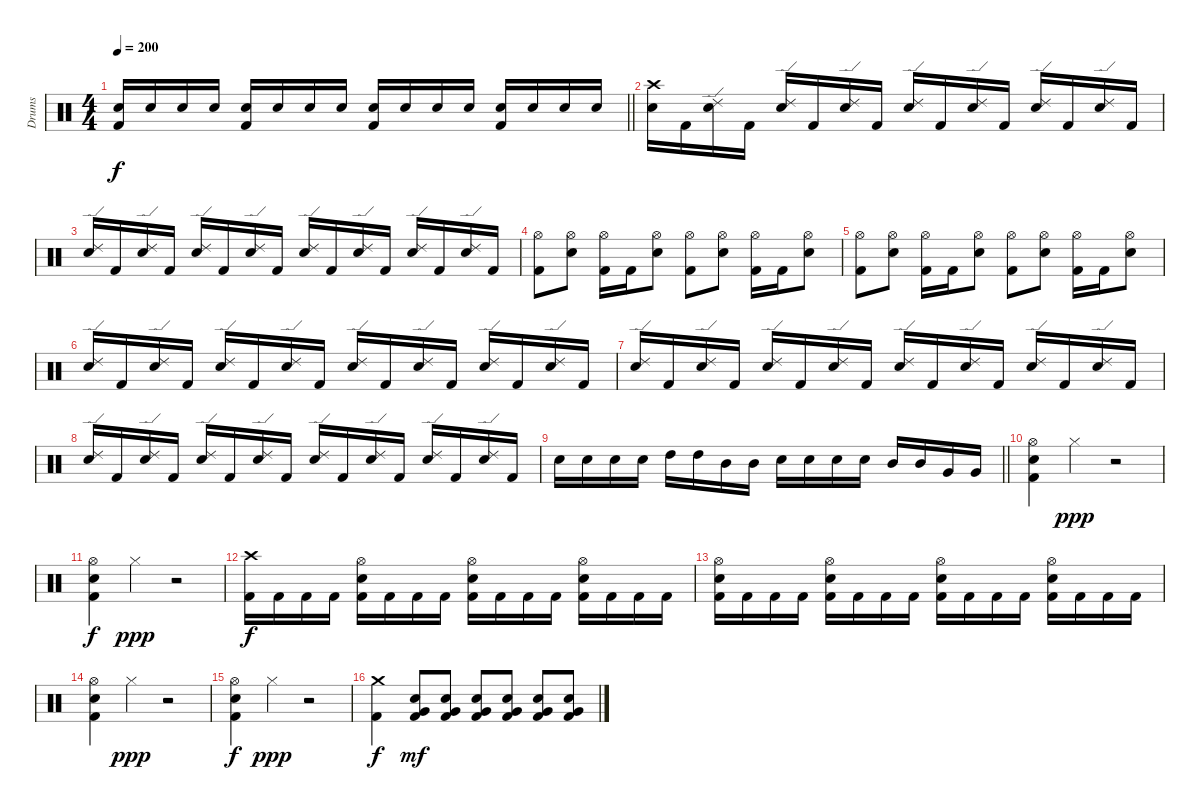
\track ("Drums" "Drums") {instrument percussion}
\staff {score}
\articulation defaults
\ts (4 4)
\tempo 200
\clef neutral
\barLineRight lightlight
\ks c
("Kick (hit) 2" "Snare (hit) 2").16{dy f} "Snare (hit) 2".16 "Snare (hit) 2".16 "Snare (hit) 2".16 ("Kick (hit) 2" "Snare (hit) 2").16 "Snare (hit) 2".16 "Snare (hit) 2".16 "Snare (hit) 2".16 ("Kick (hit) 2" "Snare (hit) 2").16 "Snare (hit) 2".16 "Snare (hit) 2".16 "Snare (hit) 2".16 ("Kick (hit) 2" "Snare (hit) 2").16 "Snare (hit) 2".16 "Snare (hit) 2".16 "Snare (hit) 2".16 |
\section ("" "")
("Snare (hit) 2" "Crash high (hit)").16 "Kick (hit) 2".16 ("Snare (hit) 2" "Ride (edge) 2").16 "Kick (hit) 2".16 ("Snare (hit) 2" "Ride (edge) 2").16 "Kick (hit) 2".16 ("Snare (hit) 2" "Ride (edge) 2").16 "Kick (hit) 2".16 ("Snare (hit) 2" "Ride (edge) 2").16 "Kick (hit) 2".16 ("Snare (hit) 2" "Ride (edge) 2").16 "Kick (hit) 2".16 ("Snare (hit) 2" "Ride (edge) 2").16 "Kick (hit) 2".16 ("Snare (hit) 2" "Ride (edge) 2").16 "Kick (hit) 2".16 |
("Snare (hit) 2" "Ride (edge) 2").16 "Kick (hit) 2".16 ("Snare (hit) 2" "Ride (edge) 2").16 "Kick (hit) 2".16 ("Snare (hit) 2" "Ride (edge) 2").16 "Kick (hit) 2".16 ("Snare (hit) 2" "Ride (edge) 2").16 "Kick (hit) 2".16 ("Snare (hit) 2" "Ride (edge) 2").16 "Kick (hit) 2".16 ("Snare (hit) 2" "Ride (edge) 2").16 "Kick (hit) 2".16 ("Snare (hit) 2" "Ride (edge) 2").16 "Kick (hit) 2".16 ("Snare (hit) 2" "Ride (edge) 2").16 "Kick (hit) 2".16 |
("Kick (hit) 2" "Hi-Hat (open)").8 ("Snare (hit) 2" "Hi-Hat (open)").8 ("Kick (hit) 2" "Hi-Hat (open)").16 "Kick (hit) 2".16 ("Snare (hit) 2" "Hi-Hat (open)").8 ("Kick (hit) 2" "Hi-Hat (open)").8 ("Snare (hit) 2" "Hi-Hat (open)").8 ("Kick (hit) 2" "Hi-Hat (open)").16 "Kick (hit) 2".16 ("Snare (hit) 2" "Hi-Hat (open)").8 |
("Kick (hit) 2" "Hi-Hat (open)").8 ("Snare (hit) 2" "Hi-Hat (open)").8 ("Kick (hit) 2" "Hi-Hat (open)").16 "Kick (hit) 2".16 ("Snare (hit) 2" "Hi-Hat (open)").8 ("Kick (hit) 2" "Hi-Hat (open)").8 ("Snare (hit) 2" "Hi-Hat (open)").8 ("Kick (hit) 2" "Hi-Hat (open)").16 "Kick (hit) 2".16 ("Snare (hit) 2" "Hi-Hat (open)").8 |
("Snare (hit) 2" "Ride (edge) 2").16 "Kick (hit) 2".16 ("Snare (hit) 2" "Ride (edge) 2").16 "Kick (hit) 2".16 ("Snare (hit) 2" "Ride (edge) 2").16 "Kick (hit) 2".16 ("Snare (hit) 2" "Ride (edge) 2").16 "Kick (hit) 2".16 ("Snare (hit) 2" "Ride (edge) 2").16 "Kick (hit) 2".16 ("Snare (hit) 2" "Ride (edge) 2").16 "Kick (hit) 2".16 ("Snare (hit) 2" "Ride (edge) 2").16 "Kick (hit) 2".16 ("Snare (hit) 2" "Ride (edge) 2").16 "Kick (hit) 2".16 |
("Snare (hit) 2" "Ride (edge) 2").16 "Kick (hit) 2".16 ("Snare (hit) 2" "Ride (edge) 2").16 "Kick (hit) 2".16 ("Snare (hit) 2" "Ride (edge) 2").16 "Kick (hit) 2".16 ("Snare (hit) 2" "Ride (edge) 2").16 "Kick (hit) 2".16 ("Snare (hit) 2" "Ride (edge) 2").16 "Kick (hit) 2".16 ("Snare (hit) 2" "Ride (edge) 2").16 "Kick (hit) 2".16 ("Snare (hit) 2" "Ride (edge) 2").16 "Kick (hit) 2".16 ("Snare (hit) 2" "Ride (edge) 2").16 "Kick (hit) 2".16 |
("Snare (hit) 2" "Ride (edge) 2").16 "Kick (hit) 2".16 ("Snare (hit) 2" "Ride (edge) 2").16 "Kick (hit) 2".16 ("Snare (hit) 2" "Ride (edge) 2").16 "Kick (hit) 2".16 ("Snare (hit) 2" "Ride (edge) 2").16 "Kick (hit) 2".16 ("Snare (hit) 2" "Ride (edge) 2").16 "Kick (hit) 2".16 ("Snare (hit) 2" "Ride (edge) 2").16 "Kick (hit) 2".16 ("Snare (hit) 2" "Ride (edge) 2").16 "Kick (hit) 2".16 ("Snare (hit) 2" "Ride (edge) 2").16 "Kick (hit) 2".16 |
\barLineRight lightlight "Snare (hit) 2".16 "Snare (hit) 2".16 "Snare (hit) 2".16 "Snare (hit) 2".16 "High Tom (hit)".16 "High Tom (hit)".16 "Mid Tom (hit)".16 "Mid Tom (hit)".16 "Snare (hit) 2".16 "Snare (hit) 2".16 "Snare (hit) 2".16 "Snare (hit) 2".16 "Mid Tom (hit)".16 "Mid Tom (hit)".16 "Very Low Tom (hit)".16 "Very Low Tom (hit)".16
|
\section ("" "")
("Kick (hit) 2" "Snare (hit) 2" "Hi-Hat (open)").4 "Hi-Hat (closed)".4{dy ppp} r.2 |
("Kick (hit) 2" "Snare (hit) 2" "Hi-Hat (open)").4{dy f} "Hi-Hat (closed)".4{dy ppp} r.2 |
("Kick (hit) 2" "Crash high (hit)").16{dy f} "Kick (hit) 2".16 "Kick (hit) 2".16 "Kick (hit) 2".16 ("Kick (hit) 2" "Snare (hit) 2" "Hi-Hat (open)").16 "Kick (hit) 2".16 "Kick (hit) 2".16 "Kick (hit) 2".16 ("Kick (hit) 2" "Snare (hit) 2" "Hi-Hat (open)").16 "Kick (hit) 2".16 "Kick (hit) 2".16 "Kick (hit) 2".16 ("Kick (hit) 2" "Snare (hit) 2" "Hi-Hat (open)").16 "Kick (hit) 2".16 "Kick (hit) 2".16 "Kick (hit) 2".16 |
("Kick (hit) 2" "Snare (hit) 2" "Hi-Hat (open)").16 "Kick (hit) 2".16 "Kick (hit) 2".16 "Kick (hit) 2".16 ("Kick (hit) 2" "Snare (hit) 2" "Hi-Hat (open)").16 "Kick (hit) 2".16 "Kick (hit) 2".16 "Kick (hit) 2".16 ("Kick (hit) 2" "Snare (hit) 2" "Hi-Hat (open)").16 "Kick (hit) 2".16 "Kick (hit) 2".16 "Kick (hit) 2".16 ("Kick (hit) 2" "Snare (hit) 2" "Hi-Hat (open)").16 "Kick (hit) 2".16 "Kick (hit) 2".16 "Kick (hit) 2".16 |
("Kick (hit) 2" "Snare (hit) 2" "Hi-Hat (open)").4 "Hi-Hat (closed)".4{dy ppp} r.2 |
("Kick (hit) 2" "Snare (hit) 2" "Hi-Hat (open)").4{dy f} "Hi-Hat (closed)".4{dy ppp} r.2 |
("Kick (hit) 2" "Crash medium (hit)").4{dy f} ("Kick (hit) 2" "Snare (hit) 2" "Very Low Tom (hit)").8{dy mf} ("Kick (hit) 2" "Snare (hit) 2" "Very Low Tom (hit)").8 ("Kick (hit) 2" "Snare (hit) 2" "Very Low Tom (hit)").8 ("Kick (hit) 2" "Snare (hit) 2" "Very Low Tom (hit)").8 ("Kick (hit) 2" "Snare (hit) 2" "Very Low Tom (hit)").8 ("Kick (hit) 2" "Snare (hit) 2" "Very Low Tom (hit)").8
